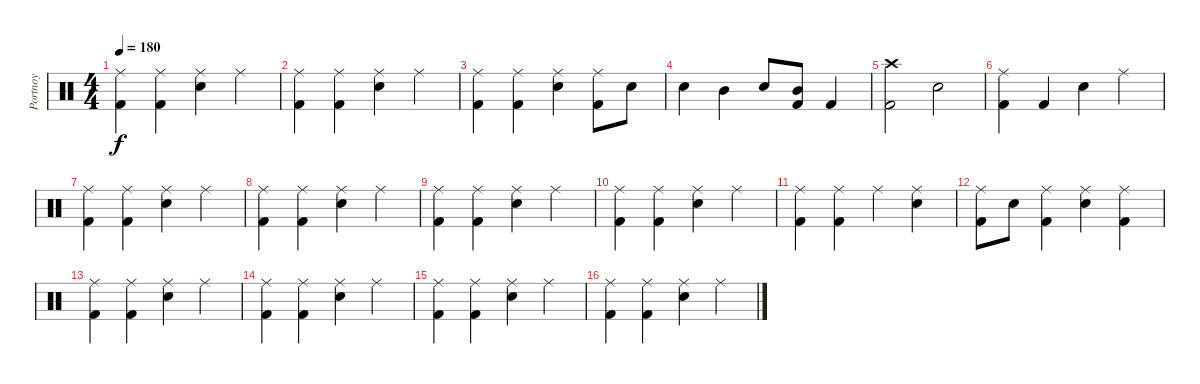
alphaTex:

\track ("Portnoy" "Portnoy") {instrument percussion}
\staff {score}
\articulation defaults
\ts (4 4)
\tempo 180
\clef neutral
\ks c
("Ride (middle)" "Kick (hit) 2").4{dy f} ("Ride (middle)" "Kick (hit) 2").4 ("Ride (middle)" "Electric Snare (hit)").4 "Ride (middle)".4 |
("Ride (middle)" "Kick (hit) 2").4 ("Ride (middle)" "Kick (hit) 2").4 ("Ride (middle)" "Electric Snare (hit)").4 "Ride (middle)".4 |
("Ride (middle)" "Kick (hit) 2").4 ("Ride (middle)" "Kick (hit) 2").4 ("Ride (middle)" "Electric Snare (hit)").4 ("Ride (middle)" "Kick (hit) 2").8 "Electric Snare (hit)".8 |
"Electric Snare (hit)".4 "Mid Tom (hit)".4 "Electric Snare (hit)".8 ("Mid Tom (hit)" "Kick (hit) 2").8 "Kick (hit) 2".4 |
("Crash high (hit)" "Kick (hit) 2").2 "Electric Snare (hit)".2 |
("Ride (middle)" "Kick (hit) 2").4 "Kick (hit) 2".4 "Electric Snare (hit)".4 "Ride (middle)".4 |
("Ride (middle)" "Kick (hit) 2").4 ("Ride (middle)" "Kick (hit) 2").4 ("Ride (middle)" "Electric Snare (hit)").4 "Ride (middle)".4 |
("Ride (middle)" "Kick (hit) 2").4 ("Ride (middle)" "Kick (hit) 2").4 ("Ride (middle)" "Electric Snare (hit)").4 "Ride (middle)".4 |
("Ride (middle)" "Kick (hit) 2").4 ("Ride (middle)" "Kick (hit) 2").4 ("Ride (middle)" "Electric Snare (hit)").4 "Ride (middle)".4 |
("Ride (middle)" "Kick (hit) 2").4 ("Ride (middle)" "Kick (hit) 2").4 ("Ride (middle)" "Electric Snare (hit)").4 "Ride (middle)".4 |
("Ride (middle)" "Kick (hit) 2").4 ("Ride (middle)" "Kick (hit) 2").4 "Ride (middle)".4 ("Ride (middle)" "Electric Snare (hit)").4 |
("Ride (middle)" "Kick (hit) 2").8 "Electric Snare (hit)".8 ("Ride (middle)" "Kick (hit) 2").4 ("Ride (middle)" "Electric Snare (hit)").4 ("Ride (middle)" "Kick (hit) 2").4 |
("Ride (middle)" "Kick (hit) 2").4 ("Ride (middle)" "Kick (hit) 2").4 ("Ride (middle)" "Electric Snare (hit)").4 "Ride (middle)".4 |
("Ride (middle)" "Kick (hit) 2").4 ("Ride (middle)" "Kick (hit) 2").4 ("Ride (middle)" "Electric Snare (hit)").4 "Ride (middle)".4 |
("Ride (middle)" "Kick (hit) 2").4 ("Ride (middle)" "Kick (hit) 2").4 ("Ride (middle)" "Electric Snare (hit)").4 "Ride (middle)".4 |
("Ride (middle)" "Kick (hit) 2").4 ("Ride (middle)" "Kick (hit) 2").4 ("Ride (middle)" "Electric Snare (hit)").4 "Ride (middle)".4
